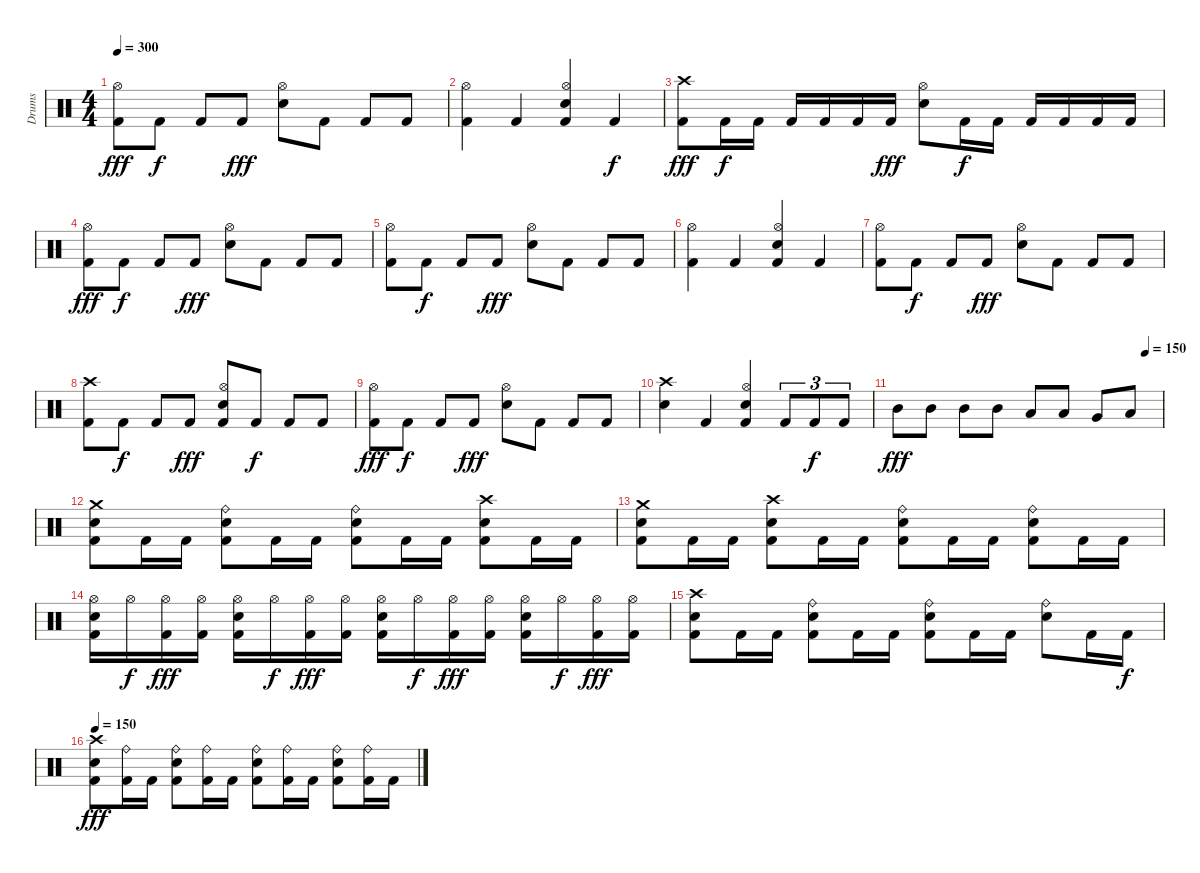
\track ("Drums" "Drums") {instrument percussion}
\staff {score}
\articulation defaults
\ts (4 4)
\tempo 300
\clef neutral
\ks c
("Kick (hit) 2" "Hi-Hat (open)").8{dy fff} "Kick (hit) 2".8{dy f} "Kick (hit) 2".8 "Kick (hit) 2".8{dy fff} ("Snare (hit) 2" "Hi-Hat (open)").8 "Kick (hit) 2".8 "Kick (hit) 2".8 "Kick (hit) 2".8 |
("Kick (hit) 2" "Hi-Hat (open)").4 "Kick (hit) 2".4 ("Snare (hit) 2" "Hi-Hat (open)" "Kick (hit) 2").4 "Kick (hit) 2".4{dy f} |
("Kick (hit) 2" "Crash high (hit)").8{dy fff} "Kick (hit) 2".16{dy f} "Kick (hit) 2".16 "Kick (hit) 2".16 "Kick (hit) 2".16 "Kick (hit) 2".16 "Kick (hit) 2".16{dy fff} ("Snare (hit) 2" "Hi-Hat (open)").8 "Kick (hit) 2".16{dy f} "Kick (hit) 2".16 "Kick (hit) 2".16 "Kick (hit) 2".16 "Kick (hit) 2".16 "Kick (hit) 2".16 |
("Kick (hit) 2" "Hi-Hat (open)").8{dy fff} "Kick (hit) 2".8{dy f} "Kick (hit) 2".8 "Kick (hit) 2".8{dy fff} ("Snare (hit) 2" "Hi-Hat (open)").8 "Kick (hit) 2".8 "Kick (hit) 2".8 "Kick (hit) 2".8 |
("Kick (hit) 2" "Hi-Hat (open)").8 "Kick (hit) 2".8{dy f} "Kick (hit) 2".8 "Kick (hit) 2".8{dy fff} ("Snare (hit) 2" "Hi-Hat (open)").8 "Kick (hit) 2".8 "Kick (hit) 2".8 "Kick (hit) 2".8 |
("Kick (hit) 2" "Hi-Hat (open)").4 "Kick (hit) 2".4 ("Snare (hit) 2" "Hi-Hat (open)" "Kick (hit) 2").4 "Kick (hit) 2".4 |
("Kick (hit) 2" "Hi-Hat (open)").8 "Kick (hit) 2".8{dy f} "Kick (hit) 2".8 "Kick (hit) 2".8{dy fff} ("Snare (hit) 2" "Hi-Hat (open)").8 "Kick (hit) 2".8 "Kick (hit) 2".8 "Kick (hit) 2".8 |
("Kick (hit) 2" "Crash high (hit)").8 "Kick (hit) 2".8{dy f} "Kick (hit) 2".8 "Kick (hit) 2".8{dy fff} ("Snare (hit) 2" "Hi-Hat (open)" "Kick (hit) 2").8 "Kick (hit) 2".8{dy f} "Kick (hit) 2".8 "Kick (hit) 2".8 |
("Kick (hit) 2" "Hi-Hat (open)").8{dy fff} "Kick (hit) 2".8{dy f} "Kick (hit) 2".8 "Kick (hit) 2".8{dy fff} ("Snare (hit) 2" "Hi-Hat (open)").8 "Kick (hit) 2".8 "Kick (hit) 2".8 "Kick (hit) 2".8 |
("Snare (hit) 2" "Crash high (hit)").4 "Kick (hit) 2".4 ("Snare (hit) 2" "Hi-Hat (open)" "Kick (hit) 2").4 "Kick (hit) 2".8{tu (3 2)} "Kick (hit) 2".8{tu (3 2) dy f} "Kick (hit) 2".8{tu (3 2)} |
\tempo (150 0.9375)
"Mid Tom (hit)".8{dy fff} "Mid Tom (hit)".8 "Mid Tom (hit)".8 "Mid Tom (hit)".8 "Low Tom (hit)".8 "Low Tom (hit)".8 "Very Low Tom (hit)".8 "Low Floor Tom (hit)".8 |
("Kick (hit) 2" "Snare (hit) 2" "Crash medium (hit)").8 "Kick (hit) 2".16 "Kick (hit) 2".16 ("Kick (hit) 2" "Snare (hit) 2" "Ride (bell)").8 "Kick (hit) 2".16 "Kick (hit) 2".16 ("Kick (hit) 2" "Snare (hit) 2" "Ride (bell)").8 "Kick (hit) 2".16 "Kick (hit) 2".16 ("Kick (hit) 2" "Snare (hit) 2" "Crash high (hit)").8 "Kick (hit) 2".16 "Kick (hit) 2".16 |
("Kick (hit) 2" "Snare (hit) 2" "Crash medium (hit)").8 "Kick (hit) 2".16 "Kick (hit) 2".16 ("Kick (hit) 2" "Snare (hit) 2" "Crash high (hit)").8 "Kick (hit) 2".16 "Kick (hit) 2".16 ("Kick (hit) 2" "Snare (hit) 2" "Ride (bell)").8 "Kick (hit) 2".16 "Kick (hit) 2".16 ("Kick (hit) 2" "Snare (hit) 2" "Ride (bell)").8 "Kick (hit) 2".16 "Kick (hit) 2".16 |
("Kick (hit) 2" "Snare (hit) 2" "Hi-Hat (open)").16 "Hi-Hat (open)".16{dy f} ("Kick (hit) 2" "Hi-Hat (open)").16{dy fff} ("Kick (hit) 2" "Hi-Hat (open)").16 ("Kick (hit) 2" "Snare (hit) 2" "Hi-Hat (open)").16 "Hi-Hat (open)".16{dy f} ("Kick (hit) 2" "Hi-Hat (open)").16{dy fff} ("Kick (hit) 2" "Hi-Hat (open)").16 ("Kick (hit) 2" "Snare (hit) 2" "Hi-Hat (open)").16 "Hi-Hat (open)".16{dy f} ("Kick (hit) 2" "Hi-Hat (open)").16{dy fff} ("Kick (hit) 2" "Hi-Hat (open)").16 ("Kick (hit) 2" "Snare (hit) 2" "Hi-Hat (open)").16 "Hi-Hat (open)".16{dy f} ("Kick (hit) 2" "Hi-Hat (open)").16{dy fff} ("Kick (hit) 2" "Hi-Hat (open)").16 |
("Kick (hit) 2" "Snare (hit) 2" "Crash high (hit)").8 "Kick (hit) 2".16 "Kick (hit) 2".16 ("Kick (hit) 2" "Snare (hit) 2" "Ride (bell)").8 "Kick (hit) 2".16 "Kick (hit) 2".16 ("Kick (hit) 2" "Snare (hit) 2" "Ride (bell)").8 "Kick (hit) 2".16 "Kick (hit) 2".16 ("Snare (hit) 2" "Ride (bell)").8 "Kick (hit) 2".16 "Kick (hit) 2".16{dy f} |
\tempo 150
("Kick (hit) 2" "Snare (hit) 2" "Crash high (hit)").8{dy fff} ("Kick (hit) 2" "Ride (bell)").16 "Kick (hit) 2".16 ("Kick (hit) 2" "Snare (hit) 2" "Ride (bell)").8 ("Kick (hit) 2" "Ride (bell)").16 "Kick (hit) 2".16 ("Kick (hit) 2" "Snare (hit) 2" "Ride (bell)").8 ("Kick (hit) 2" "Ride (bell)").16 "Kick (hit) 2".16 ("Kick (hit) 2" "Snare (hit) 2" "Ride (bell)").8 ("Kick (hit) 2" "Ride (bell)").16 "Kick (hit) 2".16
